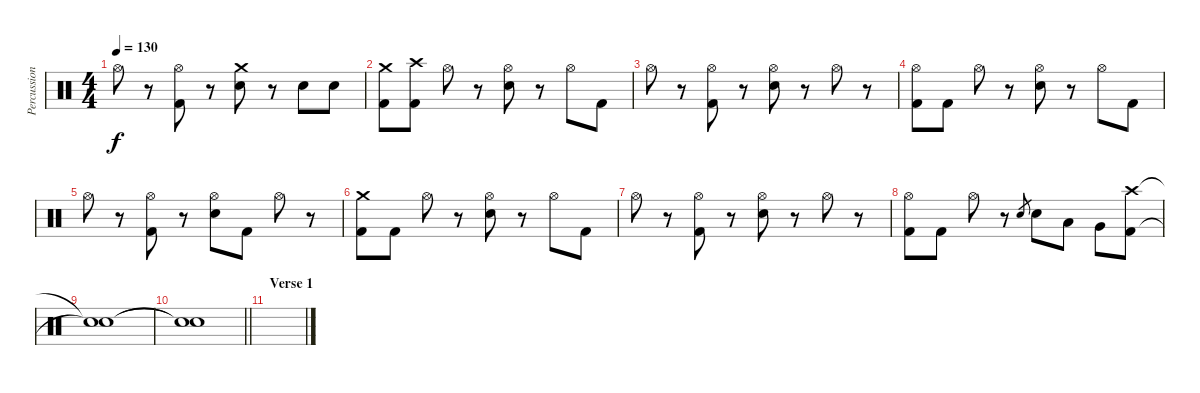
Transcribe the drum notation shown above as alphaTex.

\track ("Percussion" "Percussion") {instrument percussion}
\staff {score}
\articulation defaults
\ts (4 4)
\tempo 130
\clef neutral
\ks c "Hi-Hat (open)".8{dy f}
r.8 ("Hi-Hat (open)" "Kick (hit) 2").8 r.8 ("Crash medium (hit)" "Electric Snare (hit)").8 r.8 "Electric Snare (hit)".8 "Electric Snare (hit)".8 |
("Crash medium (hit)" "Kick (hit) 2").8 ("Crash high (hit)" "Kick (hit) 2").8 "Hi-Hat (open)".8 r.8 ("Hi-Hat (open)" "Electric Snare (hit)").8 r.8 "Hi-Hat (open)".8 "Kick (hit) 2".8 |
"Hi-Hat (open)".8 r.8 ("Hi-Hat (open)" "Kick (hit) 2").8 r.8 ("Hi-Hat (open)" "Electric Snare (hit)").8 r.8 "Hi-Hat (open)".8 r.8 |
("Hi-Hat (open)" "Kick (hit) 2").8 "Kick (hit) 2".8 "Hi-Hat (open)".8 r.8 ("Hi-Hat (open)" "Electric Snare (hit)").8 r.8 "Hi-Hat (open)".8 "Kick (hit) 2".8 |
"Hi-Hat (open)".8 r.8 ("Hi-Hat (open)" "Kick (hit) 2").8 r.8 ("Hi-Hat (open)" "Electric Snare (hit)").8 "Kick (hit) 2".8 "Hi-Hat (open)".8 r.8 |
("Crash medium (hit)" "Kick (hit) 2").8 "Kick (hit) 2".8 "Hi-Hat (open)".8 r.8 ("Hi-Hat (open)" "Electric Snare (hit)").8 r.8 "Hi-Hat (open)".8 "Kick (hit) 2".8 |
"Hi-Hat (open)".8 r.8 ("Hi-Hat (open)" "Kick (hit) 2").8 r.8 ("Hi-Hat (open)" "Electric Snare (hit)").8 r.8 "Hi-Hat (open)".8 r.8 |
("Hi-Hat (open)" "Kick (hit) 2").8 "Kick (hit) 2".8 "Hi-Hat (open)".8 r.8 "Electric Snare (hit)".8{gr} "Electric Snare (hit)".8 "Low Tom (hit)".8 "Very Low Tom (hit)".8 ("Crash high (hit)" "Kick (hit) 2").8 |
("Snare (hit)"{t} "Snare (hit)"{t}).1 |
\barLineRight lightlight
("Snare (hit)"{t} "Snare (hit)"{t}).1 |
\section ("" "Verse 1")
